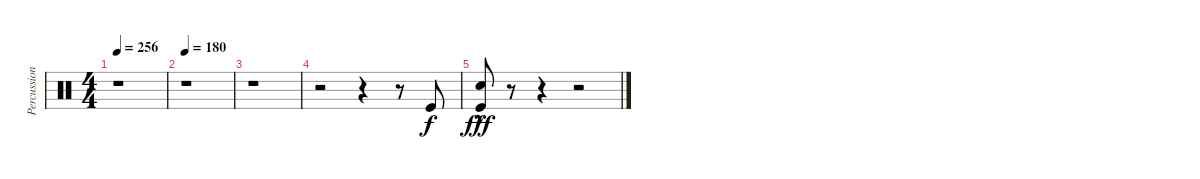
\track ("Percussion" "Percussion") {instrument percussion}
\staff {score}
\articulation defaults
\ts (4 4)
\tempo 256
\clef neutral
\ks c
r.1{dy f} |
\tempo 180
r.1 |
r.1 |
r.2 r.4 r.8 "Kick (hit)".8 |
("Snare (hit) 2"{hac} "Kick (hit)").8{dy fff} r.8 r.4 r.2
